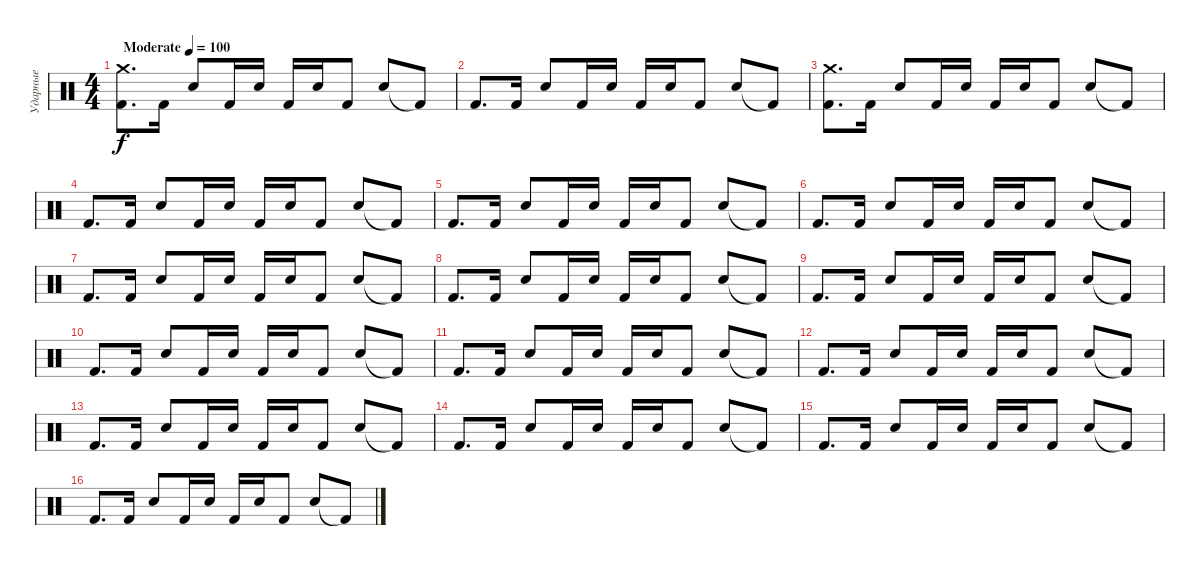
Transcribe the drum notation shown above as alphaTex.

\track ("Ударные" "Ударные") {instrument percussion}
\staff {score}
\articulation defaults
\ts (4 4)
\tempo (100 "Moderate")
\clef neutral
\ks c
("Kick (hit) 2" "Crash medium (hit)").8{d dy f} "Kick (hit) 2".16 "Snare (hit) 2".8 "Kick (hit) 2".16 "Snare (hit) 2".16 "Kick (hit) 2".16 "Snare (hit) 2".16 "Kick (hit) 2".8 "Snare (hit) 2".8 "Kick (hit) 2"{t}.8 |
"Kick (hit) 2".8{d} "Kick (hit) 2".16 "Snare (hit) 2".8 "Kick (hit) 2".16 "Snare (hit) 2".16 "Kick (hit) 2".16 "Snare (hit) 2".16 "Kick (hit) 2".8 "Snare (hit) 2".8 "Kick (hit) 2"{t}.8 |
("Kick (hit) 2" "Crash medium (hit)").8{d} "Kick (hit) 2".16 "Snare (hit) 2".8 "Kick (hit) 2".16 "Snare (hit) 2".16 "Kick (hit) 2".16 "Snare (hit) 2".16 "Kick (hit) 2".8 "Snare (hit) 2".8 "Kick (hit) 2"{t}.8 |
"Kick (hit) 2".8{d} "Kick (hit) 2".16 "Snare (hit) 2".8 "Kick (hit) 2".16 "Snare (hit) 2".16 "Kick (hit) 2".16 "Snare (hit) 2".16 "Kick (hit) 2".8 "Snare (hit) 2".8 "Kick (hit) 2"{t}.8 |
"Kick (hit) 2".8{d} "Kick (hit) 2".16 "Snare (hit) 2".8 "Kick (hit) 2".16 "Snare (hit) 2".16 "Kick (hit) 2".16 "Snare (hit) 2".16 "Kick (hit) 2".8 "Snare (hit) 2".8 "Kick (hit) 2"{t}.8 |
"Kick (hit) 2".8{d} "Kick (hit) 2".16 "Snare (hit) 2".8 "Kick (hit) 2".16 "Snare (hit) 2".16 "Kick (hit) 2".16 "Snare (hit) 2".16 "Kick (hit) 2".8 "Snare (hit) 2".8 "Kick (hit) 2"{t}.8 |
"Kick (hit) 2".8{d} "Kick (hit) 2".16 "Snare (hit) 2".8 "Kick (hit) 2".16 "Snare (hit) 2".16 "Kick (hit) 2".16 "Snare (hit) 2".16 "Kick (hit) 2".8 "Snare (hit) 2".8 "Kick (hit) 2"{t}.8 |
"Kick (hit) 2".8{d} "Kick (hit) 2".16 "Snare (hit) 2".8 "Kick (hit) 2".16 "Snare (hit) 2".16 "Kick (hit) 2".16 "Snare (hit) 2".16 "Kick (hit) 2".8 "Snare (hit) 2".8 "Kick (hit) 2"{t}.8 |
"Kick (hit) 2".8{d} "Kick (hit) 2".16 "Snare (hit) 2".8 "Kick (hit) 2".16 "Snare (hit) 2".16 "Kick (hit) 2".16 "Snare (hit) 2".16 "Kick (hit) 2".8 "Snare (hit) 2".8 "Kick (hit) 2"{t}.8 |
"Kick (hit) 2".8{d} "Kick (hit) 2".16 "Snare (hit) 2".8 "Kick (hit) 2".16 "Snare (hit) 2".16 "Kick (hit) 2".16 "Snare (hit) 2".16 "Kick (hit) 2".8 "Snare (hit) 2".8 "Kick (hit) 2"{t}.8 |
"Kick (hit) 2".8{d} "Kick (hit) 2".16 "Snare (hit) 2".8 "Kick (hit) 2".16 "Snare (hit) 2".16 "Kick (hit) 2".16 "Snare (hit) 2".16 "Kick (hit) 2".8 "Snare (hit) 2".8 "Kick (hit) 2"{t}.8 |
"Kick (hit) 2".8{d} "Kick (hit) 2".16 "Snare (hit) 2".8 "Kick (hit) 2".16 "Snare (hit) 2".16 "Kick (hit) 2".16 "Snare (hit) 2".16 "Kick (hit) 2".8 "Snare (hit) 2".8 "Kick (hit) 2"{t}.8 |
"Kick (hit) 2".8{d} "Kick (hit) 2".16 "Snare (hit) 2".8 "Kick (hit) 2".16 "Snare (hit) 2".16 "Kick (hit) 2".16 "Snare (hit) 2".16 "Kick (hit) 2".8 "Snare (hit) 2".8 "Kick (hit) 2"{t}.8 |
"Kick (hit) 2".8{d} "Kick (hit) 2".16 "Snare (hit) 2".8 "Kick (hit) 2".16 "Snare (hit) 2".16 "Kick (hit) 2".16 "Snare (hit) 2".16 "Kick (hit) 2".8 "Snare (hit) 2".8 "Kick (hit) 2"{t}.8 |
"Kick (hit) 2".8{d} "Kick (hit) 2".16 "Snare (hit) 2".8 "Kick (hit) 2".16 "Snare (hit) 2".16 "Kick (hit) 2".16 "Snare (hit) 2".16 "Kick (hit) 2".8 "Snare (hit) 2".8 "Kick (hit) 2"{t}.8 |
"Kick (hit) 2".8{d} "Kick (hit) 2".16 "Snare (hit) 2".8 "Kick (hit) 2".16 "Snare (hit) 2".16 "Kick (hit) 2".16 "Snare (hit) 2".16 "Kick (hit) 2".8 "Snare (hit) 2".8 "Kick (hit) 2"{t}.8
